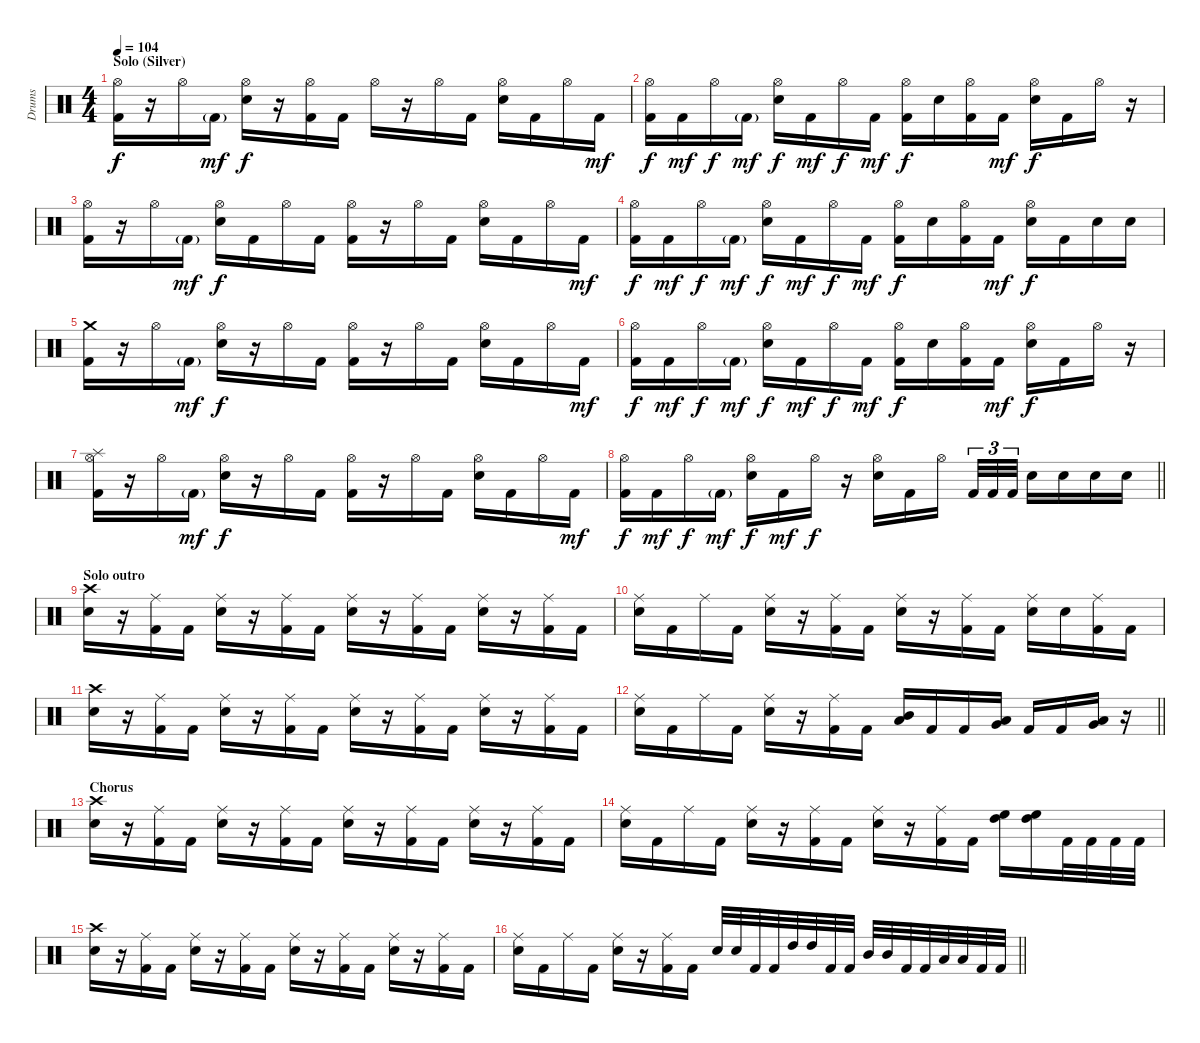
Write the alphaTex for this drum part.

\track ("Drums" "Drums") {instrument percussion}
\staff {score}
\articulation defaults
\ts (4 4)
\section ("" "Solo (Silver)")
\tempo 104
\clef neutral
\ks c
("Hi-Hat (open)" "Kick (hit) 2").16{dy f} r.16 "Hi-Hat (open)".16 "Kick (hit) 2"{g}.16{dy mf} ("Hi-Hat (open)" "Electric Snare (hit)").16{dy f} r.16 ("Hi-Hat (open)" "Kick (hit) 2").16 "Kick (hit) 2".16 "Hi-Hat (open)".16 r.16 "Hi-Hat (open)".16 "Kick (hit) 2".16 ("Hi-Hat (open)" "Electric Snare (hit)").16 "Kick (hit) 2".16 "Hi-Hat (open)".16 "Kick (hit) 2".16{dy mf} |
("Hi-Hat (open)" "Kick (hit) 2").16{dy f} "Kick (hit) 2".16{dy mf} "Hi-Hat (open)".16{dy f} "Kick (hit) 2"{g}.16{dy mf} ("Hi-Hat (open)" "Electric Snare (hit)").16{dy f} "Kick (hit) 2".16{dy mf} "Hi-Hat (open)".16{dy f} "Kick (hit) 2".16{dy mf} ("Hi-Hat (open)" "Kick (hit) 2").16{dy f} "Electric Snare (hit)".16 ("Hi-Hat (open)" "Kick (hit) 2").16 "Kick (hit) 2".16{dy mf} ("Hi-Hat (open)" "Electric Snare (hit)").16{dy f} "Kick (hit) 2".16 "Hi-Hat (open)".16 r.16 |
("Hi-Hat (open)" "Kick (hit) 2").16 r.16 "Hi-Hat (open)".16 "Kick (hit) 2"{g}.16{dy mf} ("Hi-Hat (open)" "Electric Snare (hit)").16{dy f} "Kick (hit) 2".16 "Hi-Hat (open)".16 "Kick (hit) 2".16 ("Hi-Hat (open)" "Kick (hit) 2").16 r.16 "Hi-Hat (open)".16 "Kick (hit) 2".16 ("Hi-Hat (open)" "Electric Snare (hit)").16 "Kick (hit) 2".16 "Hi-Hat (open)".16 "Kick (hit) 2".16{dy mf} |
("Hi-Hat (open)" "Kick (hit) 2").16{dy f} "Kick (hit) 2".16{dy mf} "Hi-Hat (open)".16{dy f} "Kick (hit) 2"{g}.16{dy mf} ("Hi-Hat (open)" "Electric Snare (hit)").16{dy f} "Kick (hit) 2".16{dy mf} "Hi-Hat (open)".16{dy f} "Kick (hit) 2".16{dy mf} ("Hi-Hat (open)" "Kick (hit) 2").16{dy f} "Electric Snare (hit)".16 ("Hi-Hat (open)" "Kick (hit) 2").16 "Kick (hit) 2".16{dy mf} ("Hi-Hat (open)" "Electric Snare (hit)").16{dy f} "Kick (hit) 2".16 "Electric Snare (hit)".16 "Electric Snare (hit)".16 |
("Crash medium (hit)" "Kick (hit) 2").16 r.16 "Hi-Hat (open)".16 "Kick (hit) 2"{g}.16{dy mf} ("Hi-Hat (open)" "Electric Snare (hit)").16{dy f} r.16 "Hi-Hat (open)".16 "Kick (hit) 2".16 ("Hi-Hat (open)" "Kick (hit) 2").16 r.16 "Hi-Hat (open)".16 "Kick (hit) 2".16 ("Hi-Hat (open)" "Electric Snare (hit)").16 "Kick (hit) 2".16 "Hi-Hat (open)".16 "Kick (hit) 2".16{dy mf} |
("Hi-Hat (open)" "Kick (hit) 2").16{dy f} "Kick (hit) 2".16{dy mf} "Hi-Hat (open)".16{dy f} "Kick (hit) 2"{g}.16{dy mf} ("Hi-Hat (open)" "Electric Snare (hit)").16{dy f} "Kick (hit) 2".16{dy mf} "Hi-Hat (open)".16{dy f} "Kick (hit) 2".16{dy mf} ("Hi-Hat (open)" "Kick (hit) 2").16{dy f} "Electric Snare (hit)".16 ("Hi-Hat (open)" "Kick (hit) 2").16 "Kick (hit) 2".16{dy mf} ("Hi-Hat (open)" "Electric Snare (hit)").16{dy f} "Kick (hit) 2".16 "Hi-Hat (open)".16 r.16 |
("Splash (hit)" "Hi-Hat (open)" "Kick (hit) 2").16 r.16 "Hi-Hat (open)".16 "Kick (hit) 2"{g}.16{dy mf} ("Hi-Hat (open)" "Electric Snare (hit)").16{dy f} r.16 "Hi-Hat (open)".16 "Kick (hit) 2".16 ("Hi-Hat (open)" "Kick (hit) 2").16 r.16 "Hi-Hat (open)".16 "Kick (hit) 2".16 ("Hi-Hat (open)" "Electric Snare (hit)").16 "Kick (hit) 2".16 "Hi-Hat (open)".16 "Kick (hit) 2".16{dy mf} |
\barLineRight lightlight
("Hi-Hat (open)" "Kick (hit) 2").16{dy f} "Kick (hit) 2".16{dy mf} "Hi-Hat (open)".16{dy f} "Kick (hit) 2"{g}.16{dy mf} ("Hi-Hat (open)" "Electric Snare (hit)").16{dy f} "Kick (hit) 2".16{dy mf} "Hi-Hat (open)".16{dy f} r.16 ("Hi-Hat (open)" "Electric Snare (hit)").16 "Kick (hit) 2".16 "Hi-Hat (open)".16{beam splitsecondary} "Kick (hit) 2".32{tu (3 2)} "Kick (hit) 2".32{tu (3 2)} "Kick (hit) 2".32{tu (3 2)} "Electric Snare (hit)".16 "Electric Snare (hit)".16 "Electric Snare (hit)".16 "Electric Snare (hit)".16 |
\section ("" "Solo outro")
("Crash high (hit)" "Electric Snare (hit)").16 r.16 ("Ride (middle)" "Kick (hit) 2").16 "Kick (hit) 2".16 ("Ride (middle)" "Electric Snare (hit)").16 r.16 ("Ride (middle)" "Kick (hit) 2").16 "Kick (hit) 2".16 ("Ride (middle)" "Electric Snare (hit)").16 r.16 ("Ride (middle)" "Kick (hit) 2").16 "Kick (hit) 2".16 ("Ride (middle)" "Electric Snare (hit)").16 r.16 ("Ride (middle)" "Kick (hit) 2").16 "Kick (hit) 2".16 |
("Ride (middle)" "Electric Snare (hit)").16 "Kick (hit) 2".16 "Ride (middle)".16 "Kick (hit) 2".16 ("Ride (middle)" "Electric Snare (hit)").16 r.16 ("Ride (middle)" "Kick (hit) 2").16 "Kick (hit) 2".16 ("Ride (middle)" "Electric Snare (hit)").16 r.16 ("Ride (middle)" "Kick (hit) 2").16 "Kick (hit) 2".16 ("Ride (middle)" "Electric Snare (hit)").16 "Electric Snare (hit)".16 ("Ride (middle)" "Kick (hit) 2").16 "Kick (hit) 2".16 |
("Crash high (hit)" "Electric Snare (hit)").16 r.16 ("Ride (middle)" "Kick (hit) 2").16 "Kick (hit) 2".16 ("Ride (middle)" "Electric Snare (hit)").16 r.16 ("Ride (middle)" "Kick (hit) 2").16 "Kick (hit) 2".16 ("Ride (middle)" "Electric Snare (hit)").16 r.16 ("Ride (middle)" "Kick (hit) 2").16 "Kick (hit) 2".16 ("Ride (middle)" "Electric Snare (hit)").16 r.16 ("Ride (middle)" "Kick (hit) 2").16 "Kick (hit) 2".16 |
\barLineRight lightlight
("Ride (middle)" "Electric Snare (hit)").16 "Kick (hit) 2".16 "Ride (middle)".16 "Kick (hit) 2".16 ("Ride (middle)" "Electric Snare (hit)").16 r.16 ("Ride (middle)" "Kick (hit) 2").16 "Kick (hit) 2".16 ("Mid Tom (hit)" "Low Tom (hit)").16 "Kick (hit) 2".16 "Kick (hit) 2".16 ("Low Tom (hit)" "Very Low Tom (hit)").16 "Kick (hit) 2".16 "Kick (hit) 2".16 ("Very Low Tom (hit)" "Low Floor Tom (hit)").16 r.16 |
\section ("" "Chorus")
("Crash high (hit)" "Electric Snare (hit)").16 r.16 ("Ride (middle)" "Kick (hit) 2").16 "Kick (hit) 2".16 ("Ride (middle)" "Electric Snare (hit)").16 r.16 ("Ride (middle)" "Kick (hit) 2").16 "Kick (hit) 2".16 ("Ride (middle)" "Electric Snare (hit)").16 r.16 ("Ride (middle)" "Kick (hit) 2").16 "Kick (hit) 2".16 ("Ride (middle)" "Electric Snare (hit)").16 r.16 ("Ride (middle)" "Kick (hit) 2").16 "Kick (hit) 2".16 |
("Ride (middle)" "Electric Snare (hit)").16 "Kick (hit) 2".16 "Ride (middle)".16 "Kick (hit) 2".16 ("Ride (middle)" "Electric Snare (hit)").16 r.16 ("Ride (middle)" "Kick (hit) 2").16 "Kick (hit) 2".16 ("Ride (middle)" "Electric Snare (hit)").16 r.16 ("Ride (middle)" "Kick (hit) 2").16 "Kick (hit) 2".16 ("High Floor Tom (hit)" "High Tom (hit)").16 ("High Floor Tom (hit)" "High Tom (hit)").16 "Kick (hit) 2".32 "Kick (hit) 2".32 "Kick (hit) 2".32 "Kick (hit) 2".32 |
("Crash high (hit)" "Electric Snare (hit)").16 r.16 ("Ride (middle)" "Kick (hit) 2").16 "Kick (hit) 2".16 ("Ride (middle)" "Electric Snare (hit)").16 r.16 ("Ride (middle)" "Kick (hit) 2").16 "Kick (hit) 2".16 ("Ride (middle)" "Electric Snare (hit)").16 r.16 ("Ride (middle)" "Kick (hit) 2").16 "Kick (hit) 2".16 ("Ride (middle)" "Electric Snare (hit)").16 r.16 ("Ride (middle)" "Kick (hit) 2").16 "Kick (hit) 2".16 |
\barLineRight lightlight
("Ride (middle)" "Electric Snare (hit)").16 "Kick (hit) 2".16 "Ride (middle)".16 "Kick (hit) 2".16 ("Ride (middle)" "Electric Snare (hit)").16 r.16 ("Ride (middle)" "Kick (hit) 2").16 "Kick (hit) 2".16 "Electric Snare (hit)".32 "Electric Snare (hit)".32 "Kick (hit) 2".32 "Kick (hit) 2".32 "High Tom (hit)".32 "High Tom (hit)".32 "Kick (hit) 2".32 "Kick (hit) 2".32 "Mid Tom (hit)".32 "Mid Tom (hit)".32 "Kick (hit) 2".32 "Kick (hit) 2".32 "Low Tom (hit)".32 "Low Tom (hit)".32 "Kick (hit) 2".32 "Kick (hit) 2".32
